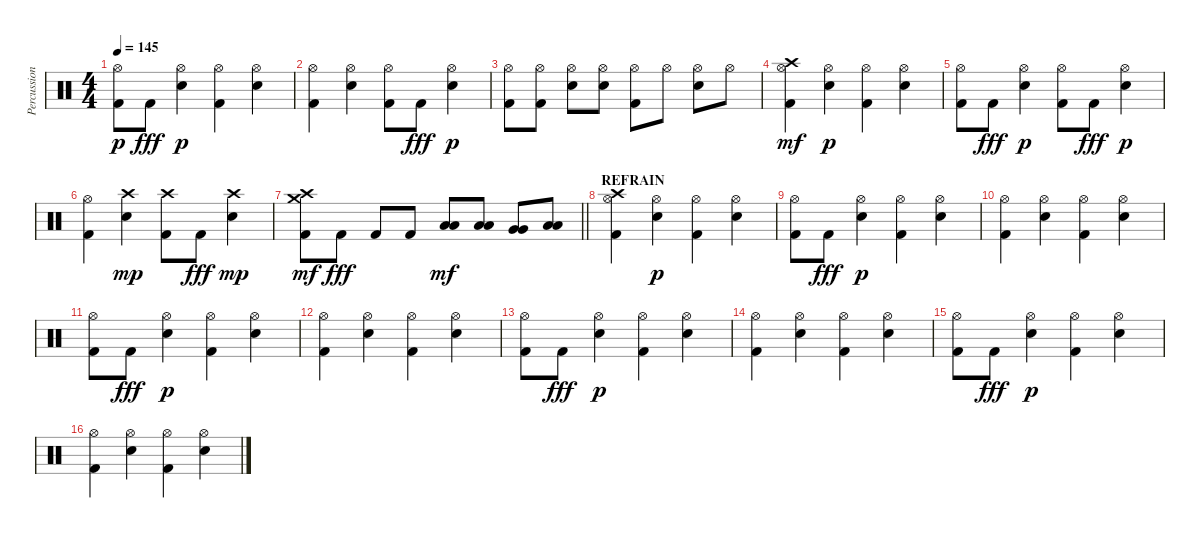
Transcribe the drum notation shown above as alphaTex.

\track ("Percussions" "Percussion") {instrument percussion}
\staff {score}
\articulation defaults
\ts (4 4)
\tempo 145
\clef neutral
\ks c
("Kick (hit) 2" "Hi-Hat (open)").8{dy p} "Kick (hit) 2".8{dy fff} ("Snare (hit) 2" "Hi-Hat (open)").4{dy p} ("Kick (hit) 2" "Hi-Hat (open)").4 ("Snare (hit) 2" "Hi-Hat (open)").4 |
("Kick (hit) 2" "Hi-Hat (open)").4 ("Snare (hit) 2" "Hi-Hat (open)").4 ("Kick (hit) 2" "Hi-Hat (open)").8 "Kick (hit) 2".8{dy fff} ("Snare (hit) 2" "Hi-Hat (open)").4{dy p} |
("Kick (hit) 2" "Hi-Hat (open)").8 ("Kick (hit) 2" "Hi-Hat (open)").8 ("Snare (hit) 2" "Hi-Hat (open)").8 ("Snare (hit) 2" "Hi-Hat (open)").8 ("Kick (hit) 2" "Hi-Hat (open)").8 "Hi-Hat (open)".8 ("Snare (hit) 2" "Hi-Hat (open)").8 "Hi-Hat (open)".8 |
("Kick (hit) 2" "Hi-Hat (open)" "Crash high (hit)").4{dy mf} ("Snare (hit) 2" "Hi-Hat (open)").4{dy p} ("Kick (hit) 2" "Hi-Hat (open)").4 ("Snare (hit) 2" "Hi-Hat (open)").4 |
("Kick (hit) 2" "Hi-Hat (open)").8 "Kick (hit) 2".8{dy fff} ("Snare (hit) 2" "Hi-Hat (open)").4{dy p} ("Kick (hit) 2" "Hi-Hat (open)").8 "Kick (hit) 2".8{dy fff} ("Snare (hit) 2" "Hi-Hat (open)").4{dy p} |
("Kick (hit) 2" "Hi-Hat (open)").4 ("Snare (hit) 2" "Crash high (hit)").4{dy mp} ("Kick (hit) 2" "Crash high (hit)").8 "Kick (hit) 2".8{dy fff} ("Snare (hit) 2" "Crash high (hit)").4{dy mp} |
\barLineRight lightlight
("Kick (hit) 2" "Crash high (hit)" "Crash medium (hit)").8{dy mf} "Kick (hit) 2".8{dy fff} "Kick (hit) 2".8 "Kick (hit) 2".8 ("Low Tom (hit)" "Low Tom (hit)").8{dy mf} ("Low Tom (hit)" "Low Tom (hit)").8 ("Very Low Tom (hit)" "Very Low Tom (hit)").8 ("Low Tom (hit)" "Low Tom (hit)").8 |
\section ("" "REFRAIN")
("Kick (hit) 2" "Hi-Hat (open)" "Crash high (hit)").4 ("Snare (hit) 2" "Hi-Hat (open)").4{dy p} ("Kick (hit) 2" "Hi-Hat (open)").4 ("Snare (hit) 2" "Hi-Hat (open)").4 |
("Kick (hit) 2" "Hi-Hat (open)").8 "Kick (hit) 2".8{dy fff} ("Snare (hit) 2" "Hi-Hat (open)").4{dy p} ("Kick (hit) 2" "Hi-Hat (open)").4 ("Snare (hit) 2" "Hi-Hat (open)").4 |
("Kick (hit) 2" "Hi-Hat (open)").4 ("Snare (hit) 2" "Hi-Hat (open)").4 ("Kick (hit) 2" "Hi-Hat (open)").4 ("Snare (hit) 2" "Hi-Hat (open)").4 |
("Kick (hit) 2" "Hi-Hat (open)").8 "Kick (hit) 2".8{dy fff} ("Snare (hit) 2" "Hi-Hat (open)").4{dy p} ("Kick (hit) 2" "Hi-Hat (open)").4 ("Snare (hit) 2" "Hi-Hat (open)").4 |
("Kick (hit) 2" "Hi-Hat (open)").4 ("Snare (hit) 2" "Hi-Hat (open)").4 ("Kick (hit) 2" "Hi-Hat (open)").4 ("Snare (hit) 2" "Hi-Hat (open)").4 |
("Kick (hit) 2" "Hi-Hat (open)").8 "Kick (hit) 2".8{dy fff} ("Snare (hit) 2" "Hi-Hat (open)").4{dy p} ("Kick (hit) 2" "Hi-Hat (open)").4 ("Snare (hit) 2" "Hi-Hat (open)").4 |
("Kick (hit) 2" "Hi-Hat (open)").4 ("Snare (hit) 2" "Hi-Hat (open)").4 ("Kick (hit) 2" "Hi-Hat (open)").4 ("Snare (hit) 2" "Hi-Hat (open)").4 |
("Kick (hit) 2" "Hi-Hat (open)").8 "Kick (hit) 2".8{dy fff} ("Snare (hit) 2" "Hi-Hat (open)").4{dy p} ("Kick (hit) 2" "Hi-Hat (open)").4 ("Snare (hit) 2" "Hi-Hat (open)").4 |
("Kick (hit) 2" "Hi-Hat (open)").4 ("Snare (hit) 2" "Hi-Hat (open)").4 ("Kick (hit) 2" "Hi-Hat (open)").4 ("Snare (hit) 2" "Hi-Hat (open)").4
